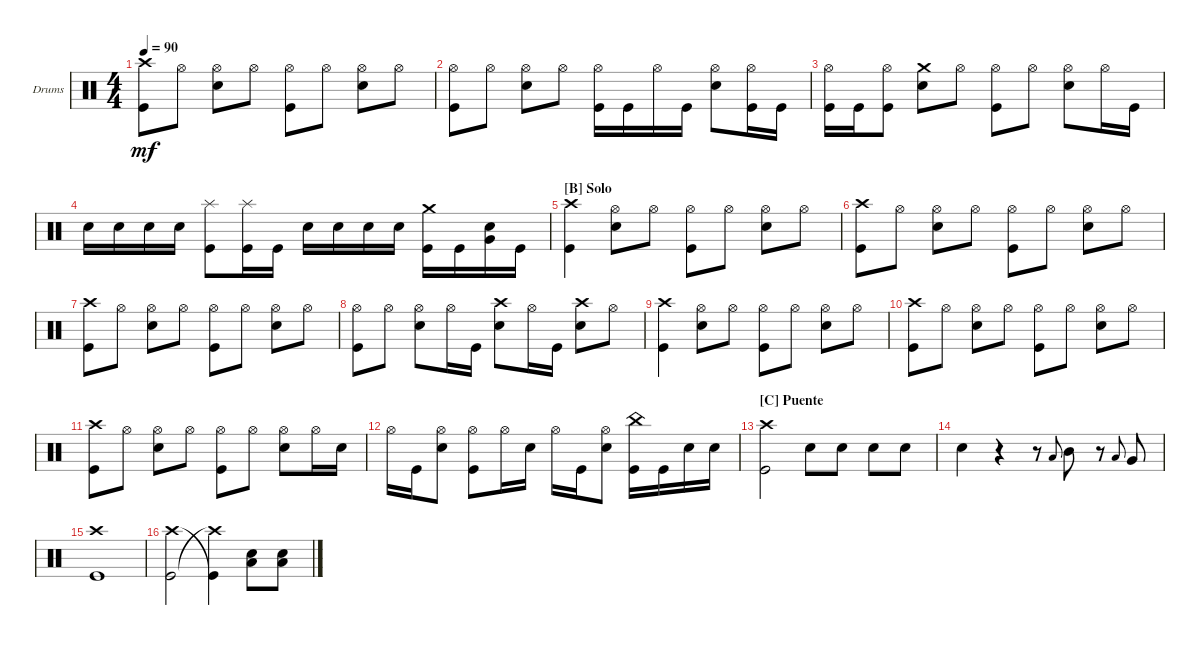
\bracketExtendMode groupsimilarinstruments
\firstSystemTrackNameOrientation horizontal
\otherSystemsTrackNameOrientation horizontal
\track ("Arin Ilejay" "Drums") {instrument percussion}
\staff {score}
\articulation defaults
\ts (4 4)
\tempo 90
\clef neutral
\ks c
("Kick (hit)" "Crash high (hit)").8{dy mf} "Hi-Hat (open)".8 ("Hi-Hat (open)" "Snare (hit) 2").8 "Hi-Hat (open)".8 ("Hi-Hat (open)" "Kick (hit)").8 "Hi-Hat (open)".8 ("Hi-Hat (open)" "Snare (hit) 2").8 "Hi-Hat (open)".8 |
("Kick (hit)" "Hi-Hat (open)").8 "Hi-Hat (open)".8 ("Hi-Hat (open)" "Snare (hit) 2").8 "Hi-Hat (open)".8 ("Kick (hit)" "Hi-Hat (open)").16 "Kick (hit)".16 "Hi-Hat (open)".16 "Kick (hit)".16 ("Hi-Hat (open)" "Snare (hit) 2").8 ("Kick (hit)" "Hi-Hat (open)").16 "Kick (hit)".16 |
("Kick (hit)" "Hi-Hat (open)").16 "Kick (hit)".16 ("Hi-Hat (open)" "Kick (hit)").8 ("Snare (hit) 2" "Crash medium (hit)").8 "Hi-Hat (open)".8 ("Hi-Hat (open)" "Kick (hit)").8 "Hi-Hat (open)".8 ("Hi-Hat (open)" "Snare (hit) 2").8 "Hi-Hat (open)".16 "Kick (hit)".16 |
"Snare (hit) 2".16 "Snare (hit) 2".16 "Snare (hit) 2".16 "Snare (hit) 2".16 ("Kick (hit)" "Splash (hit)").8 ("Kick (hit)" "Splash (hit)").16 "Kick (hit)".16 "Snare (hit) 2".16 "Snare (hit) 2".16 "Snare (hit) 2".16 "Snare (hit) 2".16 ("Kick (hit)" "Crash medium (hit)").16 "Kick (hit)".16 ("Very Low Tom (hit)" "Snare (hit) 2").16 "Kick (hit)".16 |
\section ("B" "Solo")
("Crash high (hit)" "Kick (hit)").4 ("Hi-Hat (open)" "Snare (hit) 2").8 "Hi-Hat (open)".8 ("Hi-Hat (open)" "Kick (hit)").8 "Hi-Hat (open)".8 ("Hi-Hat (open)" "Snare (hit) 2").8 "Hi-Hat (open)".8 |
("Kick (hit)" "Crash high (hit)").8 "Hi-Hat (open)".8 ("Hi-Hat (open)" "Snare (hit) 2").8 "Hi-Hat (open)".8 ("Hi-Hat (open)" "Kick (hit)").8 "Hi-Hat (open)".8 ("Hi-Hat (open)" "Snare (hit) 2").8 "Hi-Hat (open)".8 |
("Crash high (hit)" "Kick (hit)").8 "Hi-Hat (open)".8 ("Hi-Hat (open)" "Snare (hit) 2").8 "Hi-Hat (open)".8 ("Hi-Hat (open)" "Kick (hit)").8 "Hi-Hat (open)".8 ("Hi-Hat (open)" "Snare (hit) 2").8 "Hi-Hat (open)".8 |
("Hi-Hat (open)" "Kick (hit)").8 "Hi-Hat (open)".8 ("Hi-Hat (open)" "Snare (hit) 2").8 "Hi-Hat (open)".16 "Kick (hit)".16 ("Snare (hit) 2" "Crash high (hit)").8 "Hi-Hat (open)".16 "Kick (hit)".16 ("Snare (hit) 2" "Crash high (hit)").8 "Hi-Hat (open)".8 |
("Crash high (hit)" "Kick (hit)").4 ("Hi-Hat (open)" "Snare (hit) 2").8 "Hi-Hat (open)".8 ("Hi-Hat (open)" "Kick (hit)").8 "Hi-Hat (open)".8 ("Hi-Hat (open)" "Snare (hit) 2").8 "Hi-Hat (open)".8 |
("Kick (hit)" "Crash high (hit)").8 "Hi-Hat (open)".8 ("Hi-Hat (open)" "Snare (hit) 2").8 "Hi-Hat (open)".8 ("Hi-Hat (open)" "Kick (hit)").8 "Hi-Hat (open)".8 ("Hi-Hat (open)" "Snare (hit) 2").8 "Hi-Hat (open)".8 |
("Crash high (hit)" "Kick (hit)").8 "Hi-Hat (open)".8 ("Hi-Hat (open)" "Snare (hit) 2").8 "Hi-Hat (open)".8 ("Hi-Hat (open)" "Kick (hit)").8 "Hi-Hat (open)".8 ("Hi-Hat (open)" "Snare (hit) 2").8 "Hi-Hat (open)".16 "Snare (hit) 2".16 |
"Hi-Hat (open)".16 "Kick (hit)".16 ("Hi-Hat (open)" "Snare (hit) 2").8 ("Hi-Hat (open)" "Kick (hit)").8 "Hi-Hat (open)".16 "Snare (hit) 2".16 "Hi-Hat (open)".16 "Kick (hit)".16 ("Hi-Hat (open)" "Snare (hit) 2").8 ("China (hit)" "Kick (hit)").16 "Kick (hit)".16 "Snare (hit) 2".16 "Snare (hit) 2".16 |
\section ("C" "Puente")
("Kick (hit)" "Crash high (hit)").2 "Snare (hit) 2".8 "Snare (hit) 2".8 "Snare (hit) 2".8 "Snare (hit) 2".8 |
"Snare (hit) 2".4 r.4 r.8 "Low Tom (hit)".8{gr onbeat} "Mid Tom (hit)".8 r.8 "Low Tom (hit)".8{gr onbeat} "Very Low Tom (hit)".8 |
("Kick (hit)" "Crash high (hit)").1 |
("Kick (hit)" "Crash high (hit)").2 ("Crash high (hit)"{t} "Kick (hit)"{t}).4 ("Snare (hit) 2" "Low Tom (hit)").8 ("Snare (hit) 2" "Low Tom (hit)").8
